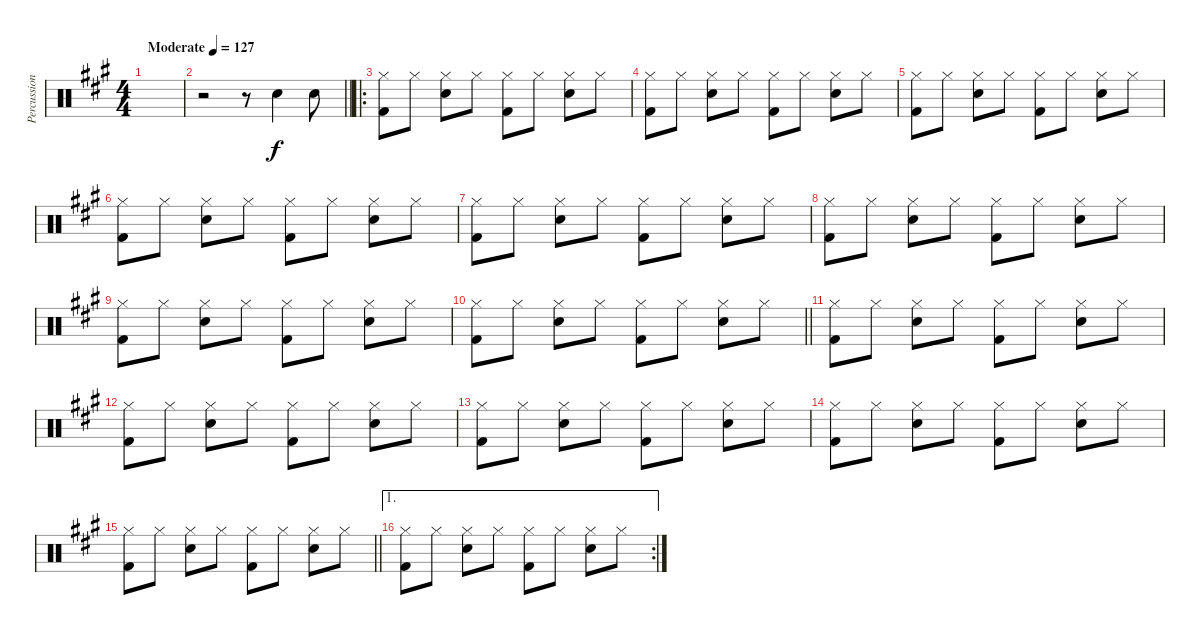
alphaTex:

\track ("Percussion" "Percussion") {instrument percussion}
\staff {score}
\articulation defaults
\ts (4 4)
\tempo (127 "Moderate")
\clef neutral
\ks a
|
\barLineRight lightlight
r.2 r.8 "Snare (hit) 2".4 "Snare (hit) 2".8 |
\ro
("Hi-Hat (closed)" "Kick (hit) 2").8 "Hi-Hat (closed)".8 ("Hi-Hat (closed)" "Snare (hit) 2").8 "Hi-Hat (closed)".8 ("Hi-Hat (closed)" "Kick (hit) 2").8 "Hi-Hat (closed)".8 ("Hi-Hat (closed)" "Snare (hit) 2").8 "Hi-Hat (closed)".8 |
("Hi-Hat (closed)" "Kick (hit) 2").8 "Hi-Hat (closed)".8 ("Hi-Hat (closed)" "Snare (hit) 2").8 "Hi-Hat (closed)".8 ("Hi-Hat (closed)" "Kick (hit) 2").8 "Hi-Hat (closed)".8 ("Hi-Hat (closed)" "Snare (hit) 2").8 "Hi-Hat (closed)".8 |
("Hi-Hat (closed)" "Kick (hit) 2").8 "Hi-Hat (closed)".8 ("Hi-Hat (closed)" "Snare (hit) 2").8 "Hi-Hat (closed)".8 ("Hi-Hat (closed)" "Kick (hit) 2").8 "Hi-Hat (closed)".8 ("Hi-Hat (closed)" "Snare (hit) 2").8 "Hi-Hat (closed)".8 |
("Hi-Hat (closed)" "Kick (hit) 2").8 "Hi-Hat (closed)".8 ("Hi-Hat (closed)" "Snare (hit) 2").8 "Hi-Hat (closed)".8 ("Hi-Hat (closed)" "Kick (hit) 2").8 "Hi-Hat (closed)".8 ("Hi-Hat (closed)" "Snare (hit) 2").8 "Hi-Hat (closed)".8 |
("Hi-Hat (closed)" "Kick (hit) 2").8 "Hi-Hat (closed)".8 ("Hi-Hat (closed)" "Snare (hit) 2").8 "Hi-Hat (closed)".8 ("Hi-Hat (closed)" "Kick (hit) 2").8 "Hi-Hat (closed)".8 ("Hi-Hat (closed)" "Snare (hit) 2").8 "Hi-Hat (closed)".8 |
("Hi-Hat (closed)" "Kick (hit) 2").8 "Hi-Hat (closed)".8 ("Hi-Hat (closed)" "Snare (hit) 2").8 "Hi-Hat (closed)".8 ("Hi-Hat (closed)" "Kick (hit) 2").8 "Hi-Hat (closed)".8 ("Hi-Hat (closed)" "Snare (hit) 2").8 "Hi-Hat (closed)".8 |
("Hi-Hat (closed)" "Kick (hit) 2").8 "Hi-Hat (closed)".8 ("Hi-Hat (closed)" "Snare (hit) 2").8 "Hi-Hat (closed)".8 ("Hi-Hat (closed)" "Kick (hit) 2").8 "Hi-Hat (closed)".8 ("Hi-Hat (closed)" "Snare (hit) 2").8 "Hi-Hat (closed)".8 |
\barLineRight lightlight
("Hi-Hat (closed)" "Kick (hit) 2").8 "Hi-Hat (closed)".8 ("Hi-Hat (closed)" "Snare (hit) 2").8 "Hi-Hat (closed)".8 ("Hi-Hat (closed)" "Kick (hit) 2").8 "Hi-Hat (closed)".8 ("Hi-Hat (closed)" "Snare (hit) 2").8 "Hi-Hat (closed)".8 |
("Hi-Hat (closed)" "Kick (hit) 2").8 "Hi-Hat (closed)".8 ("Hi-Hat (closed)" "Snare (hit) 2").8 "Hi-Hat (closed)".8 ("Hi-Hat (closed)" "Kick (hit) 2").8 "Hi-Hat (closed)".8 ("Hi-Hat (closed)" "Snare (hit) 2").8 "Hi-Hat (closed)".8 |
("Hi-Hat (closed)" "Kick (hit) 2").8 "Hi-Hat (closed)".8 ("Hi-Hat (closed)" "Snare (hit) 2").8 "Hi-Hat (closed)".8 ("Hi-Hat (closed)" "Kick (hit) 2").8 "Hi-Hat (closed)".8 ("Hi-Hat (closed)" "Snare (hit) 2").8 "Hi-Hat (closed)".8 |
("Hi-Hat (closed)" "Kick (hit) 2").8 "Hi-Hat (closed)".8 ("Hi-Hat (closed)" "Snare (hit) 2").8 "Hi-Hat (closed)".8 ("Hi-Hat (closed)" "Kick (hit) 2").8 "Hi-Hat (closed)".8 ("Hi-Hat (closed)" "Snare (hit) 2").8 "Hi-Hat (closed)".8 |
("Hi-Hat (closed)" "Kick (hit) 2").8 "Hi-Hat (closed)".8 ("Hi-Hat (closed)" "Snare (hit) 2").8 "Hi-Hat (closed)".8 ("Hi-Hat (closed)" "Kick (hit) 2").8 "Hi-Hat (closed)".8 ("Hi-Hat (closed)" "Snare (hit) 2").8 "Hi-Hat (closed)".8 |
\barLineRight lightlight
("Hi-Hat (closed)" "Kick (hit) 2").8 "Hi-Hat (closed)".8 ("Hi-Hat (closed)" "Snare (hit) 2").8 "Hi-Hat (closed)".8 ("Hi-Hat (closed)" "Kick (hit) 2").8 "Hi-Hat (closed)".8 ("Hi-Hat (closed)" "Snare (hit) 2").8 "Hi-Hat (closed)".8 |
\ae 1
\rc 2
("Hi-Hat (closed)" "Kick (hit) 2").8 "Hi-Hat (closed)".8 ("Hi-Hat (closed)" "Snare (hit) 2").8 "Hi-Hat (closed)".8 ("Hi-Hat (closed)" "Kick (hit) 2").8 "Hi-Hat (closed)".8 ("Hi-Hat (closed)" "Snare (hit) 2").8 "Hi-Hat (closed)".8
